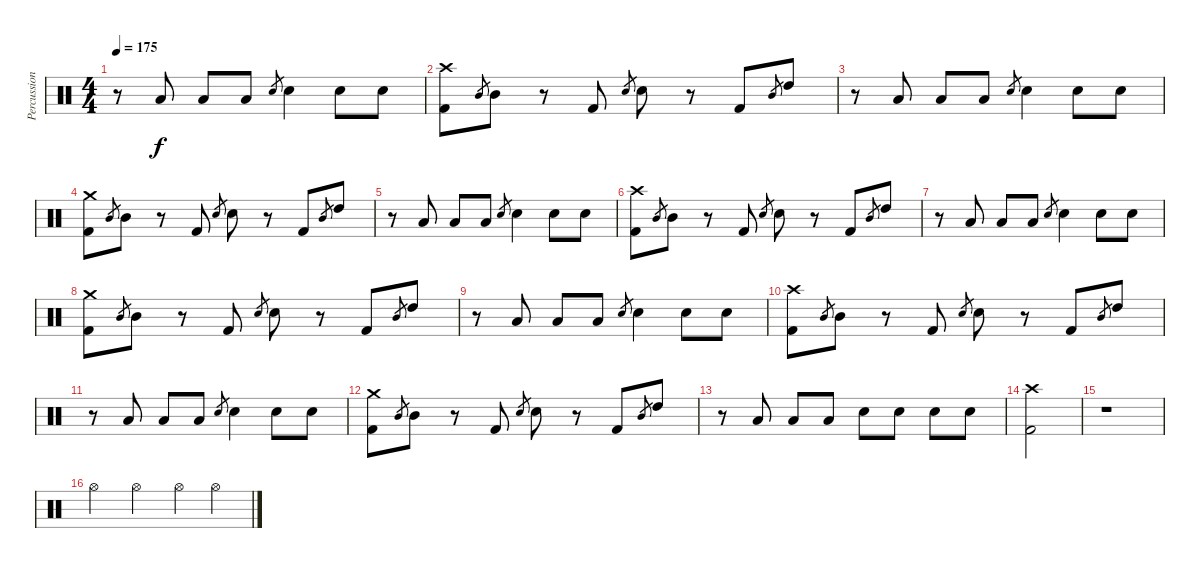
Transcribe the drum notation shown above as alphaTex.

\track ("Percussion" "Percussion") {instrument percussion}
\staff {score}
\articulation defaults
\ts (4 4)
\tempo 175
\clef neutral
\ks c
r.8{dy f} "Low Tom (hit)".8 "Low Tom (hit)".8 "Low Tom (hit)".8 "Electric Snare (hit)".8{gr} "Electric Snare (hit)".4 "Electric Snare (hit)".8 "Electric Snare (hit)".8 |
("Crash high (hit)" "Kick (hit) 2").8 "Mid Tom (hit)".8{gr} "Mid Tom (hit)".8 r.8 "Kick (hit) 2".8 "Electric Snare (hit)".8{gr} "Electric Snare (hit)".8 r.8 "Kick (hit) 2".8 "Mid Tom (hit)".8{gr} "High Tom (hit)".8 |
r.8 "Low Tom (hit)".8 "Low Tom (hit)".8 "Low Tom (hit)".8 "Electric Snare (hit)".8{gr} "Electric Snare (hit)".4 "Electric Snare (hit)".8 "Electric Snare (hit)".8 |
("Crash medium (hit)" "Kick (hit) 2").8 "Mid Tom (hit)".8{gr} "Mid Tom (hit)".8 r.8 "Kick (hit) 2".8 "Electric Snare (hit)".8{gr} "Electric Snare (hit)".8 r.8 "Kick (hit) 2".8 "Mid Tom (hit)".8{gr} "High Tom (hit)".8 |
r.8 "Low Tom (hit)".8 "Low Tom (hit)".8 "Low Tom (hit)".8 "Electric Snare (hit)".8{gr} "Electric Snare (hit)".4 "Electric Snare (hit)".8 "Electric Snare (hit)".8 |
("Crash high (hit)" "Kick (hit) 2").8 "Mid Tom (hit)".8{gr} "Mid Tom (hit)".8 r.8 "Kick (hit) 2".8 "Electric Snare (hit)".8{gr} "Electric Snare (hit)".8 r.8 "Kick (hit) 2".8 "Mid Tom (hit)".8{gr} "High Tom (hit)".8 |
r.8 "Low Tom (hit)".8 "Low Tom (hit)".8 "Low Tom (hit)".8 "Electric Snare (hit)".8{gr} "Electric Snare (hit)".4 "Electric Snare (hit)".8 "Electric Snare (hit)".8 |
("Crash medium (hit)" "Kick (hit) 2").8 "Mid Tom (hit)".8{gr} "Mid Tom (hit)".8 r.8 "Kick (hit) 2".8 "Electric Snare (hit)".8{gr} "Electric Snare (hit)".8 r.8 "Kick (hit) 2".8 "Mid Tom (hit)".8{gr} "High Tom (hit)".8 |
r.8 "Low Tom (hit)".8 "Low Tom (hit)".8 "Low Tom (hit)".8 "Electric Snare (hit)".8{gr} "Electric Snare (hit)".4 "Electric Snare (hit)".8 "Electric Snare (hit)".8 |
("Crash high (hit)" "Kick (hit) 2").8 "Mid Tom (hit)".8{gr} "Mid Tom (hit)".8 r.8 "Kick (hit) 2".8 "Electric Snare (hit)".8{gr} "Electric Snare (hit)".8 r.8 "Kick (hit) 2".8 "Mid Tom (hit)".8{gr} "High Tom (hit)".8 |
r.8 "Low Tom (hit)".8 "Low Tom (hit)".8 "Low Tom (hit)".8 "Electric Snare (hit)".8{gr} "Electric Snare (hit)".4 "Electric Snare (hit)".8 "Electric Snare (hit)".8 |
("Crash medium (hit)" "Kick (hit) 2").8 "Mid Tom (hit)".8{gr} "Mid Tom (hit)".8 r.8 "Kick (hit) 2".8 "Electric Snare (hit)".8{gr} "Electric Snare (hit)".8 r.8 "Kick (hit) 2".8 "Mid Tom (hit)".8{gr} "High Tom (hit)".8 |
r.8 "Low Tom (hit)".8 "Low Tom (hit)".8 "Low Tom (hit)".8 "Electric Snare (hit)".8 "Electric Snare (hit)".8 "Electric Snare (hit)".8 "Electric Snare (hit)".8 |
("Crash high (hit)" "Kick (hit) 2").2 |
r.1 |
"Hi-Hat (open)".2 "Hi-Hat (open)".2 "Hi-Hat (open)".4 "Hi-Hat (open)".4
